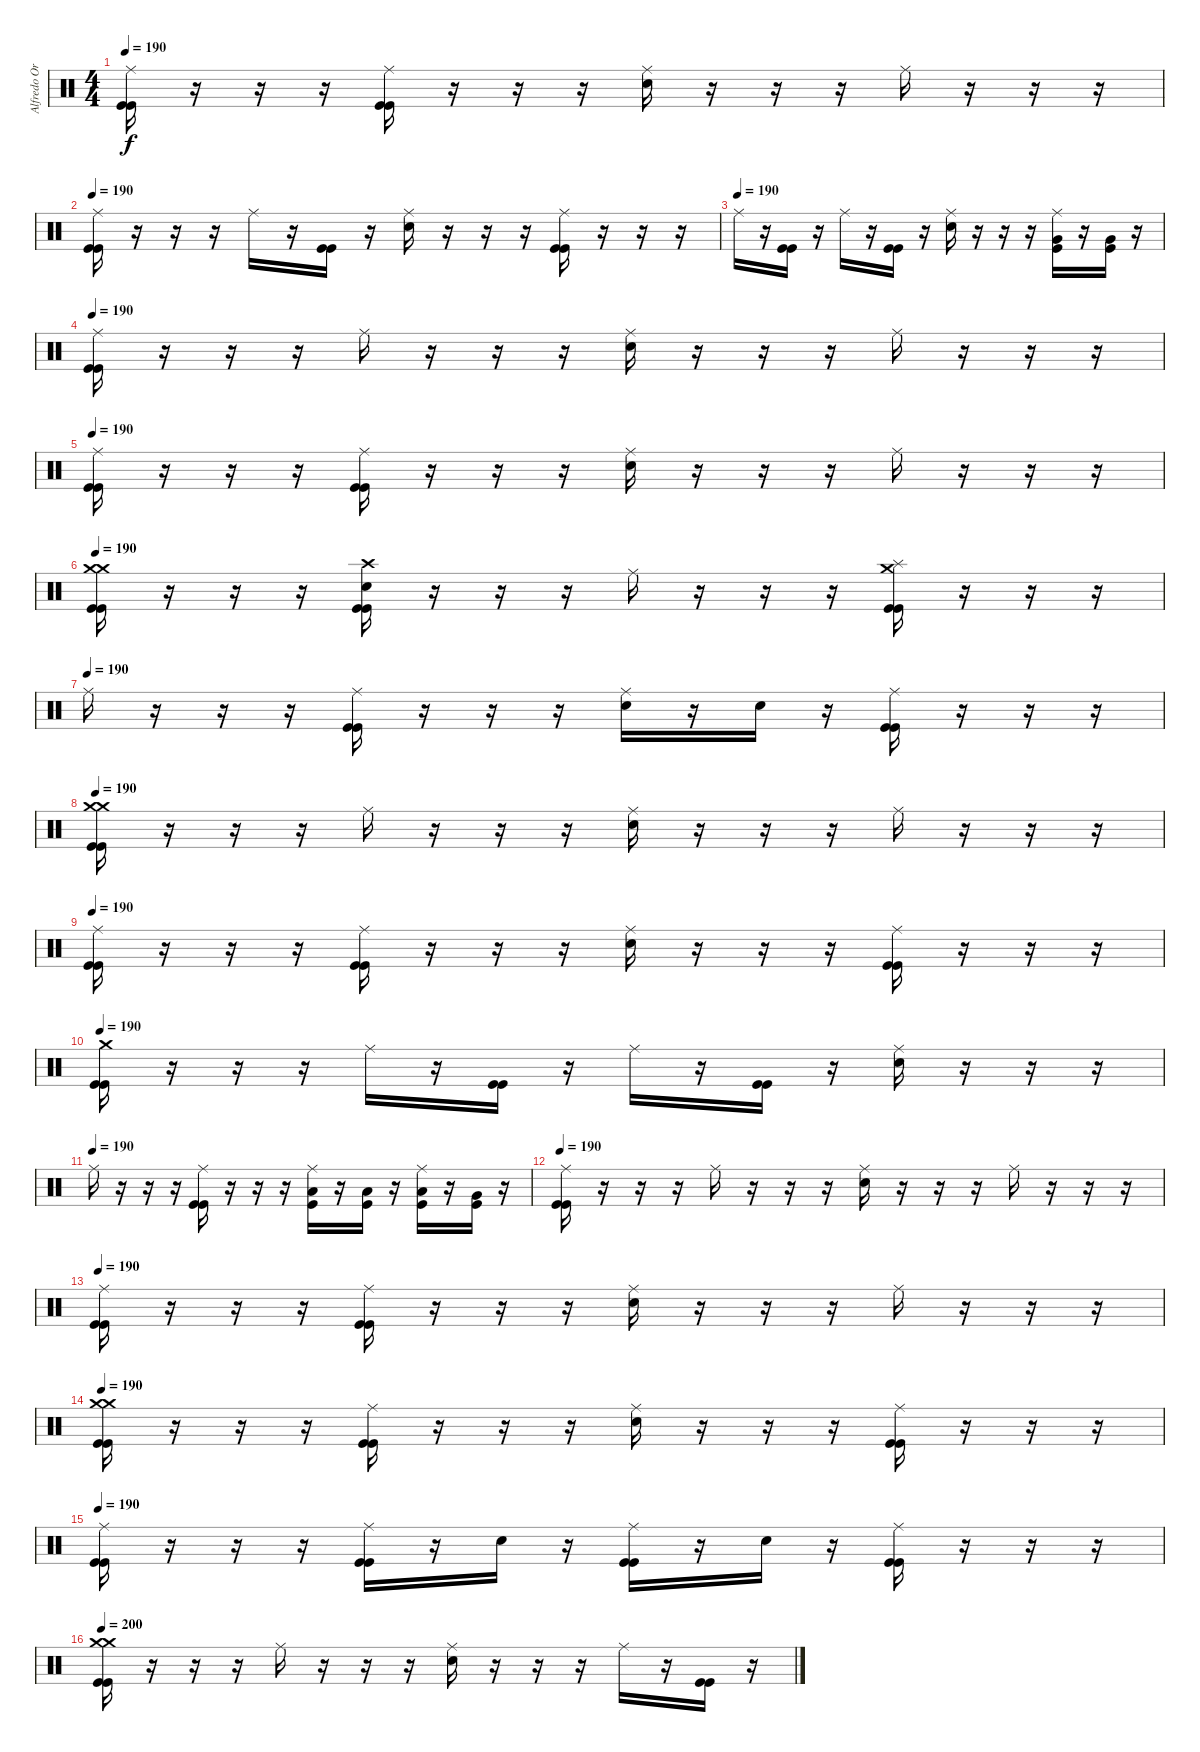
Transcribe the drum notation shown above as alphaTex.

\track ("Alfredo Ortiz" "Alfredo Or") {instrument percussion}
\staff {score}
\articulation defaults
\ts (4 4)
\tempo 190
\clef neutral
\ks c
("Ride (middle)" "Kick (hit)" "Kick (hit)").16{dy f} r.16 r.16 r.16 ("Ride (middle)" "Kick (hit)" "Kick (hit)").16 r.16 r.16 r.16 ("Ride (middle)" "Snare (hit) 2").16 r.16 r.16 r.16 "Ride (middle)".16 r.16 r.16 r.16 |
\tempo 190
("Ride (middle)" "Kick (hit)" "Kick (hit)").16 r.16 r.16 r.16 "Ride (middle)".16 r.16 ("Kick (hit)" "Kick (hit)").16 r.16 ("Ride (middle)" "Snare (hit) 2").16 r.16 r.16 r.16 ("Ride (middle)" "Kick (hit)" "Kick (hit)").16 r.16 r.16 r.16 |
\tempo (190)
"Ride (middle)".16 r.16 ("Kick (hit)" "Kick (hit)").16 r.16 "Ride (middle)".16 r.16 ("Kick (hit)" "Kick (hit)").16 r.16 ("Ride (middle)" "Snare (hit) 2").16 r.16 r.16 r.16 ("Ride (middle)" "Very Low Tom (hit)" "Kick (hit)").16 r.16 ("Very Low Tom (hit)" "Kick (hit)").16 r.16 |
\tempo 190
("Ride (middle)" "Kick (hit)" "Kick (hit)").16 r.16 r.16 r.16 "Ride (middle)".16 r.16 r.16 r.16 ("Ride (middle)" "Snare (hit) 2").16 r.16 r.16 r.16 "Ride (middle)".16 r.16 r.16 r.16 |
\tempo 190
("Ride (middle)" "Kick (hit)" "Kick (hit)").16 r.16 r.16 r.16 ("Ride (middle)" "Kick (hit)" "Kick (hit)").16 r.16 r.16 r.16 ("Ride (middle)" "Snare (hit) 2").16 r.16 r.16 r.16 "Ride (middle)".16 r.16 r.16 r.16 |
\tempo 190
("Crash medium (hit)" "Crash medium (hit)" "Kick (hit)" "Kick (hit)").16 r.16 r.16 r.16 ("Crash high (hit)" "Snare (hit) 2" "Kick (hit)" "Kick (hit)").16 r.16 r.16 r.16 "Ride (middle)".16 r.16 r.16 r.16 ("Crash medium (hit)" "Splash (hit)" "Kick (hit)" "Kick (hit)").16 r.16 r.16 r.16 |
\tempo (190)
"Ride (middle)".16 r.16 r.16 r.16 ("Ride (middle)" "Kick (hit)" "Kick (hit)").16 r.16 r.16 r.16 ("Ride (middle)" "Snare (hit) 2").16 r.16 "Snare (hit) 2".16 r.16 ("Ride (middle)" "Kick (hit)" "Kick (hit)").16 r.16 r.16 r.16 |
\tempo 190
("Crash medium (hit)" "Crash medium (hit)" "Kick (hit)" "Kick (hit)").16 r.16 r.16 r.16 "Ride (middle)".16 r.16 r.16 r.16 ("Ride (middle)" "Snare (hit) 2").16 r.16 r.16 r.16 "Ride (middle)".16 r.16 r.16 r.16 |
\tempo 190
("Ride (middle)" "Kick (hit)" "Kick (hit)").16 r.16 r.16 r.16 ("Ride (middle)" "Kick (hit)" "Kick (hit)").16 r.16 r.16 r.16 ("Ride (middle)" "Snare (hit) 2").16 r.16 r.16 r.16 ("Ride (middle)" "Kick (hit)" "Kick (hit)").16 r.16 r.16 r.16 |
\tempo 190
("Crash medium (hit)" "Kick (hit)" "Kick (hit)").16 r.16 r.16 r.16 "Ride (middle)".16 r.16 ("Kick (hit)" "Kick (hit)").16 r.16 "Ride (middle)".16 r.16 ("Kick (hit)" "Kick (hit)").16 r.16 ("Ride (middle)" "Snare (hit) 2").16 r.16 r.16 r.16 |
\tempo (190)
"Ride (middle)".16 r.16 r.16 r.16 ("Ride (middle)" "Kick (hit)" "Kick (hit)").16 r.16 r.16 r.16 ("Ride (middle)" "Low Floor Tom (hit)" "Kick (hit)").16 r.16 ("Low Floor Tom (hit)" "Kick (hit)").16 r.16 ("Ride (middle)" "Low Tom (hit)" "Kick (hit)").16 r.16 ("Very Low Tom (hit)" "Kick (hit)").16 r.16 |
\tempo 190
("Ride (middle)" "Kick (hit)" "Kick (hit)").16 r.16 r.16 r.16 "Ride (middle)".16 r.16 r.16 r.16 ("Ride (middle)" "Snare (hit) 2").16 r.16 r.16 r.16 "Ride (middle)".16 r.16 r.16 r.16 |
\tempo 190
("Ride (middle)" "Kick (hit)" "Kick (hit)").16 r.16 r.16 r.16 ("Ride (middle)" "Kick (hit)" "Kick (hit)").16 r.16 r.16 r.16 ("Ride (middle)" "Snare (hit) 2").16 r.16 r.16 r.16 "Ride (middle)".16 r.16 r.16 r.16 |
\tempo 190
("Crash medium (hit)" "Crash medium (hit)" "Kick (hit)" "Kick (hit)").16 r.16 r.16 r.16 ("Ride (middle)" "Kick (hit)" "Kick (hit)").16 r.16 r.16 r.16 ("Ride (middle)" "Snare (hit) 2").16 r.16 r.16 r.16 ("Ride (middle)" "Kick (hit)" "Kick (hit)").16 r.16 r.16 r.16 |
\tempo 190
("Ride (middle)" "Kick (hit)" "Kick (hit)").16 r.16 r.16 r.16 ("Ride (middle)" "Kick (hit)" "Kick (hit)").16 r.16 "Snare (hit) 2".16 r.16 ("Ride (middle)" "Kick (hit)" "Kick (hit)").16 r.16 "Snare (hit) 2".16 r.16 ("Ride (middle)" "Kick (hit)" "Kick (hit)").16 r.16 r.16 r.16 |
\tempo 200
("Crash medium (hit)" "Crash medium (hit)" "Kick (hit)" "Kick (hit)").16 r.16 r.16 r.16 "Ride (middle)".16 r.16 r.16 r.16 ("Ride (middle)" "Snare (hit) 2").16 r.16 r.16 r.16 "Ride (middle)".16 r.16 ("Kick (hit)" "Kick (hit)").16 r.16
